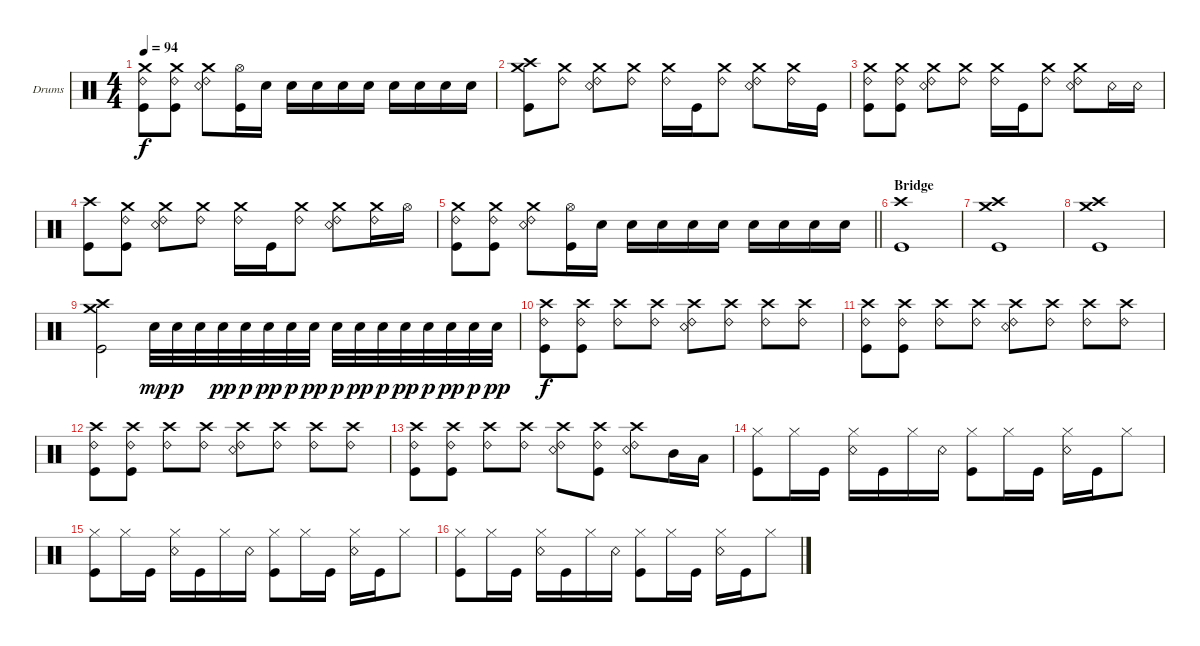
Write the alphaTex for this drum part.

\bracketExtendMode groupsimilarinstruments
\firstSystemTrackNameOrientation horizontal
\otherSystemsTrackNameOrientation horizontal
\track ("Drumkit" "Drums") {instrument percussion}
\staff {score}
\articulation defaults
\ts (4 4)
\tempo 94
\clef neutral
\ks c
("Crash medium (hit)" "Kick (hit)" "Ride (bell) 2").8{dy f} ("Crash medium (hit)" "Kick (hit)" "Ride (bell) 2").8 ("Crash medium (hit)" "Snare (rim shot)" "Ride (bell) 2").8 ("Hi-Hat (open)" "Kick (hit)").16 "Snare (hit) 2".16 "Snare (hit) 2".16 "Snare (hit) 2".16 "Snare (hit) 2".16 "Snare (hit) 2".16 "Snare (hit) 2".16 "Snare (hit) 2".16 "Snare (hit) 2".16 "Snare (hit) 2".16 |
("Crash high (hit)" "Crash medium (hit)" "Kick (hit)").8 ("Crash medium (hit)" "Ride (bell) 2").8 ("Crash medium (hit)" "Snare (rim shot)" "Ride (bell) 2").8 ("Crash medium (hit)" "Ride (bell) 2").8 ("Crash medium (hit)" "Ride (bell) 2").16 "Kick (hit)".16 ("Crash medium (hit)" "Ride (bell) 2").8 ("Crash medium (hit)" "Snare (rim shot)" "Ride (bell) 2").8 ("Crash medium (hit)" "Ride (bell) 2").16 "Kick (hit)".16 |
("Crash medium (hit)" "Kick (hit)" "Ride (bell) 2").8 ("Crash medium (hit)" "Kick (hit)" "Ride (bell) 2").8 ("Crash medium (hit)" "Snare (rim shot)" "Ride (bell) 2").8 ("Crash medium (hit)" "Ride (bell) 2").8 ("Crash medium (hit)" "Ride (bell) 2").16 "Kick (hit)".16 ("Crash medium (hit)" "Ride (bell) 2").8 ("Crash medium (hit)" "Snare (rim shot)" "Ride (bell) 2").8 "Snare (rim shot)".16 "Snare (rim shot)".16 |
("Crash high (hit)" "Kick (hit)").8 ("Crash medium (hit)" "Kick (hit)" "Ride (bell) 2").8 ("Crash medium (hit)" "Ride (bell) 2" "Snare (rim shot)").8 ("Crash medium (hit)" "Ride (bell) 2").8 ("Crash medium (hit)" "Ride (bell) 2").16 "Kick (hit)".16 ("Crash medium (hit)" "Ride (bell) 2").8 ("Crash medium (hit)" "Snare (rim shot)" "Ride (bell) 2").8 ("Crash medium (hit)" "Ride (bell) 2").16 "Hi-Hat (open)".16 |
\barLineRight lightlight
("Crash medium (hit)" "Kick (hit)" "Ride (bell) 2").8 ("Crash medium (hit)" "Kick (hit)" "Ride (bell) 2").8 ("Crash medium (hit)" "Snare (rim shot)" "Ride (bell) 2").8 ("Hi-Hat (open)" "Kick (hit)").16 "Snare (hit) 2".16 "Snare (hit) 2".16 "Snare (hit) 2".16 "Snare (hit) 2".16 "Snare (hit) 2".16 "Snare (hit) 2".16 "Snare (hit) 2".16 "Snare (hit) 2".16 "Snare (hit) 2".16 |
\section ("" "Bridge")
("Crash high (hit)" "Kick (hit)").1 |
("Crash high (hit)" "Crash medium (hit)" "Kick (hit)").1 |
("Crash high (hit)" "Crash medium (hit)" "Kick (hit)").1 |
("Crash high (hit)" "Crash medium (hit)" "Kick (hit)").2 "Snare (hit) 2".32{dy mp} "Snare (hit) 2".32{dy p} "Snare (hit) 2".32 "Snare (hit) 2".32{dy pp} "Snare (hit) 2".32{dy p} "Snare (hit) 2".32{dy pp} "Snare (hit) 2".32{dy p} "Snare (hit) 2".32{dy pp} "Snare (hit) 2".32{dy p} "Snare (hit) 2".32{dy pp} "Snare (hit) 2".32{dy p} "Snare (hit) 2".32{dy pp} "Snare (hit) 2".32{dy p} "Snare (hit) 2".32{dy pp} "Snare (hit) 2".32{dy p} "Snare (hit) 2".32{dy pp} |
("Crash high (hit)" "Kick (hit)" "Ride (bell) 2").8{dy f} ("Crash high (hit)" "Kick (hit)" "Ride (bell) 2").8 ("Crash high (hit)" "Ride (bell) 2").8 ("Crash high (hit)" "Ride (bell) 2").8 ("Crash high (hit)" "Snare (rim shot)" "Ride (bell) 2").8 ("Crash high (hit)" "Ride (bell) 2").8 ("Crash high (hit)" "Ride (bell) 2").8 ("Crash high (hit)" "Ride (bell) 2").8 |
("Crash high (hit)" "Kick (hit)" "Ride (bell) 2").8 ("Crash high (hit)" "Kick (hit)" "Ride (bell) 2").8 ("Crash high (hit)" "Ride (bell) 2").8 ("Crash high (hit)" "Ride (bell) 2").8 ("Crash high (hit)" "Snare (rim shot)" "Ride (bell) 2").8 ("Crash high (hit)" "Ride (bell) 2").8 ("Crash high (hit)" "Ride (bell) 2").8 ("Crash high (hit)" "Ride (bell) 2").8 |
("Crash high (hit)" "Kick (hit)" "Ride (bell) 2").8 ("Crash high (hit)" "Kick (hit)" "Ride (bell) 2").8 ("Crash high (hit)" "Ride (bell) 2").8 ("Crash high (hit)" "Ride (bell) 2").8 ("Crash high (hit)" "Snare (rim shot)" "Ride (bell) 2").8 ("Crash high (hit)" "Ride (bell) 2").8 ("Crash high (hit)" "Ride (bell) 2").8 ("Crash high (hit)" "Ride (bell) 2").8 |
("Crash high (hit)" "Kick (hit)" "Ride (bell) 2").8 ("Crash high (hit)" "Kick (hit)" "Ride (bell) 2").8 ("Crash high (hit)" "Ride (bell) 2").8 ("Crash high (hit)" "Ride (bell) 2").8 ("Crash high (hit)" "Snare (rim shot)" "Ride (bell) 2").8 ("Crash high (hit)" "Kick (hit)" "Ride (bell) 2").8 ("Crash high (hit)" "Snare (rim shot)" "Ride (bell) 2").8 "Mid Tom (hit)".16 "Low Tom (hit)".16 |
("Kick (hit)" "Hi-Hat (closed)").8 "Hi-Hat (closed)".16 "Kick (hit)".16 ("Hi-Hat (closed)" "Snare (rim shot)").16 "Kick (hit)".16 "Hi-Hat (closed)".16 "Snare (rim shot)".16 ("Hi-Hat (closed)" "Kick (hit)").8 "Hi-Hat (closed)".16 "Kick (hit)".16 ("Hi-Hat (closed)" "Snare (rim shot)").16 "Kick (hit)".16 "Hi-Hat (closed)".8 |
("Kick (hit)" "Hi-Hat (closed)").8 "Hi-Hat (closed)".16 "Kick (hit)".16 ("Hi-Hat (closed)" "Snare (rim shot)").16 "Kick (hit)".16 "Hi-Hat (closed)".16 "Snare (rim shot)".16 ("Hi-Hat (closed)" "Kick (hit)").8 "Hi-Hat (closed)".16 "Kick (hit)".16 ("Hi-Hat (closed)" "Snare (rim shot)").16 "Kick (hit)".16 "Hi-Hat (closed)".8 |
("Kick (hit)" "Hi-Hat (closed)").8 "Hi-Hat (closed)".16 "Kick (hit)".16 ("Hi-Hat (closed)" "Snare (rim shot)").16 "Kick (hit)".16 "Hi-Hat (closed)".16 "Snare (rim shot)".16 ("Hi-Hat (closed)" "Kick (hit)").8 "Hi-Hat (closed)".16 "Kick (hit)".16 ("Hi-Hat (closed)" "Snare (rim shot)").16 "Kick (hit)".16 "Hi-Hat (closed)".8
